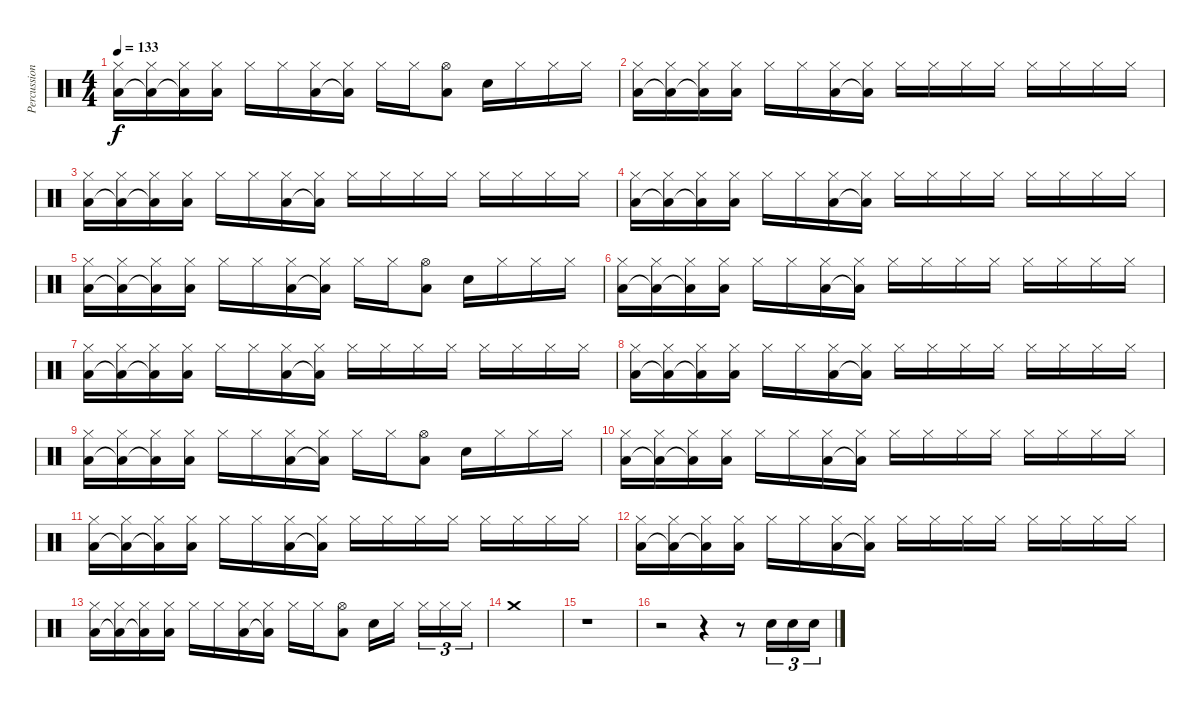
\track ("Percussion" "Percussion") {instrument percussion}
\staff {score}
\articulation defaults
\ts (4 4)
\tempo 133
\clef neutral
\ks c
("Hi-Hat (closed)" "Low Floor Tom (hit)").16{dy f} ("Hi-Hat (closed)" "Low Floor Tom (hit)"{t}).16 ("Hi-Hat (closed)" "Low Floor Tom (hit)"{t}).16 ("Hi-Hat (closed)" "Low Floor Tom (hit)").16 "Hi-Hat (closed)".16 "Hi-Hat (closed)".16 ("Hi-Hat (closed)" "Low Floor Tom (hit)").16 ("Hi-Hat (closed)" "Low Floor Tom (hit)"{t}).16 "Hi-Hat (closed)".16 "Hi-Hat (closed)".16 ("Hi-Hat (open)" "Low Floor Tom (hit)").8 "Snare (hit) 2".16 "Hi-Hat (closed)".16 "Hi-Hat (closed)".16 "Hi-Hat (closed)".16 |
("Hi-Hat (closed)" "Low Floor Tom (hit)").16 ("Hi-Hat (closed)" "Low Floor Tom (hit)"{t}).16 ("Hi-Hat (closed)" "Low Floor Tom (hit)"{t}).16 ("Hi-Hat (closed)" "Low Floor Tom (hit)").16 "Hi-Hat (closed)".16 "Hi-Hat (closed)".16 ("Hi-Hat (closed)" "Low Floor Tom (hit)").16 ("Hi-Hat (closed)" "Low Floor Tom (hit)"{t}).16 "Hi-Hat (closed)".16 "Hi-Hat (closed)".16 "Hi-Hat (closed)".16 "Hi-Hat (closed)".16 "Hi-Hat (closed)".16 "Hi-Hat (closed)".16 "Hi-Hat (closed)".16 "Hi-Hat (closed)".16 |
("Hi-Hat (closed)" "Low Floor Tom (hit)").16 ("Hi-Hat (closed)" "Low Floor Tom (hit)"{t}).16 ("Hi-Hat (closed)" "Low Floor Tom (hit)"{t}).16 ("Hi-Hat (closed)" "Low Floor Tom (hit)").16 "Hi-Hat (closed)".16 "Hi-Hat (closed)".16 ("Hi-Hat (closed)" "Low Floor Tom (hit)").16 ("Hi-Hat (closed)" "Low Floor Tom (hit)"{t}).16 "Hi-Hat (closed)".16 "Hi-Hat (closed)".16 "Hi-Hat (closed)".16 "Hi-Hat (closed)".16 "Hi-Hat (closed)".16 "Hi-Hat (closed)".16 "Hi-Hat (closed)".16 "Hi-Hat (closed)".16 |
("Hi-Hat (closed)" "Low Floor Tom (hit)").16 ("Hi-Hat (closed)" "Low Floor Tom (hit)"{t}).16 ("Hi-Hat (closed)" "Low Floor Tom (hit)"{t}).16 ("Hi-Hat (closed)" "Low Floor Tom (hit)").16 "Hi-Hat (closed)".16 "Hi-Hat (closed)".16 ("Hi-Hat (closed)" "Low Floor Tom (hit)").16 ("Hi-Hat (closed)" "Low Floor Tom (hit)"{t}).16 "Hi-Hat (closed)".16 "Hi-Hat (closed)".16 "Hi-Hat (closed)".16 "Hi-Hat (closed)".16 "Hi-Hat (closed)".16 "Hi-Hat (closed)".16 "Hi-Hat (closed)".16 "Hi-Hat (closed)".16 |
("Hi-Hat (closed)" "Low Floor Tom (hit)").16 ("Hi-Hat (closed)" "Low Floor Tom (hit)"{t}).16 ("Hi-Hat (closed)" "Low Floor Tom (hit)"{t}).16 ("Hi-Hat (closed)" "Low Floor Tom (hit)").16 "Hi-Hat (closed)".16 "Hi-Hat (closed)".16 ("Hi-Hat (closed)" "Low Floor Tom (hit)").16 ("Hi-Hat (closed)" "Low Floor Tom (hit)"{t}).16 "Hi-Hat (closed)".16 "Hi-Hat (closed)".16 ("Hi-Hat (open)" "Low Floor Tom (hit)").8 "Snare (hit) 2".16 "Hi-Hat (closed)".16 "Hi-Hat (closed)".16 "Hi-Hat (closed)".16 |
("Hi-Hat (closed)" "Low Floor Tom (hit)").16 ("Hi-Hat (closed)" "Low Floor Tom (hit)"{t}).16 ("Hi-Hat (closed)" "Low Floor Tom (hit)"{t}).16 ("Hi-Hat (closed)" "Low Floor Tom (hit)").16 "Hi-Hat (closed)".16 "Hi-Hat (closed)".16 ("Hi-Hat (closed)" "Low Floor Tom (hit)").16 ("Hi-Hat (closed)" "Low Floor Tom (hit)"{t}).16 "Hi-Hat (closed)".16 "Hi-Hat (closed)".16 "Hi-Hat (closed)".16 "Hi-Hat (closed)".16 "Hi-Hat (closed)".16 "Hi-Hat (closed)".16 "Hi-Hat (closed)".16 "Hi-Hat (closed)".16 |
("Hi-Hat (closed)" "Low Floor Tom (hit)").16 ("Hi-Hat (closed)" "Low Floor Tom (hit)"{t}).16 ("Hi-Hat (closed)" "Low Floor Tom (hit)"{t}).16 ("Hi-Hat (closed)" "Low Floor Tom (hit)").16 "Hi-Hat (closed)".16 "Hi-Hat (closed)".16 ("Hi-Hat (closed)" "Low Floor Tom (hit)").16 ("Hi-Hat (closed)" "Low Floor Tom (hit)"{t}).16 "Hi-Hat (closed)".16 "Hi-Hat (closed)".16 "Hi-Hat (closed)".16 "Hi-Hat (closed)".16 "Hi-Hat (closed)".16 "Hi-Hat (closed)".16 "Hi-Hat (closed)".16 "Hi-Hat (closed)".16 |
("Hi-Hat (closed)" "Low Floor Tom (hit)").16 ("Hi-Hat (closed)" "Low Floor Tom (hit)"{t}).16 ("Hi-Hat (closed)" "Low Floor Tom (hit)"{t}).16 ("Hi-Hat (closed)" "Low Floor Tom (hit)").16 "Hi-Hat (closed)".16 "Hi-Hat (closed)".16 ("Hi-Hat (closed)" "Low Floor Tom (hit)").16 ("Hi-Hat (closed)" "Low Floor Tom (hit)"{t}).16 "Hi-Hat (closed)".16 "Hi-Hat (closed)".16 "Hi-Hat (closed)".16 "Hi-Hat (closed)".16 "Hi-Hat (closed)".16 "Hi-Hat (closed)".16 "Hi-Hat (closed)".16 "Hi-Hat (closed)".16 |
("Hi-Hat (closed)" "Low Floor Tom (hit)").16 ("Hi-Hat (closed)" "Low Floor Tom (hit)"{t}).16 ("Hi-Hat (closed)" "Low Floor Tom (hit)"{t}).16 ("Hi-Hat (closed)" "Low Floor Tom (hit)").16 "Hi-Hat (closed)".16 "Hi-Hat (closed)".16 ("Hi-Hat (closed)" "Low Floor Tom (hit)").16 ("Hi-Hat (closed)" "Low Floor Tom (hit)"{t}).16 "Hi-Hat (closed)".16 "Hi-Hat (closed)".16 ("Hi-Hat (open)" "Low Floor Tom (hit)").8 "Snare (hit) 2".16 "Hi-Hat (closed)".16 "Hi-Hat (closed)".16 "Hi-Hat (closed)".16 |
("Hi-Hat (closed)" "Low Floor Tom (hit)").16 ("Hi-Hat (closed)" "Low Floor Tom (hit)"{t}).16 ("Hi-Hat (closed)" "Low Floor Tom (hit)"{t}).16 ("Hi-Hat (closed)" "Low Floor Tom (hit)").16 "Hi-Hat (closed)".16 "Hi-Hat (closed)".16 ("Hi-Hat (closed)" "Low Floor Tom (hit)").16 ("Hi-Hat (closed)" "Low Floor Tom (hit)"{t}).16 "Hi-Hat (closed)".16 "Hi-Hat (closed)".16 "Hi-Hat (closed)".16 "Hi-Hat (closed)".16 "Hi-Hat (closed)".16 "Hi-Hat (closed)".16 "Hi-Hat (closed)".16 "Hi-Hat (closed)".16 |
("Hi-Hat (closed)" "Low Floor Tom (hit)").16 ("Hi-Hat (closed)" "Low Floor Tom (hit)"{t}).16 ("Hi-Hat (closed)" "Low Floor Tom (hit)"{t}).16 ("Hi-Hat (closed)" "Low Floor Tom (hit)").16 "Hi-Hat (closed)".16 "Hi-Hat (closed)".16 ("Hi-Hat (closed)" "Low Floor Tom (hit)").16 ("Hi-Hat (closed)" "Low Floor Tom (hit)"{t}).16 "Hi-Hat (closed)".16 "Hi-Hat (closed)".16 "Hi-Hat (closed)".16 "Hi-Hat (closed)".16 "Hi-Hat (closed)".16 "Hi-Hat (closed)".16 "Hi-Hat (closed)".16 "Hi-Hat (closed)".16 |
("Hi-Hat (closed)" "Low Floor Tom (hit)").16 ("Hi-Hat (closed)" "Low Floor Tom (hit)"{t}).16 ("Hi-Hat (closed)" "Low Floor Tom (hit)"{t}).16 ("Hi-Hat (closed)" "Low Floor Tom (hit)").16 "Hi-Hat (closed)".16 "Hi-Hat (closed)".16 ("Hi-Hat (closed)" "Low Floor Tom (hit)").16 ("Hi-Hat (closed)" "Low Floor Tom (hit)"{t}).16 "Hi-Hat (closed)".16 "Hi-Hat (closed)".16 "Hi-Hat (closed)".16 "Hi-Hat (closed)".16 "Hi-Hat (closed)".16 "Hi-Hat (closed)".16 "Hi-Hat (closed)".16 "Hi-Hat (closed)".16 |
("Hi-Hat (closed)" "Low Floor Tom (hit)").16 ("Hi-Hat (closed)" "Low Floor Tom (hit)"{t}).16 ("Hi-Hat (closed)" "Low Floor Tom (hit)"{t}).16 ("Hi-Hat (closed)" "Low Floor Tom (hit)").16 "Hi-Hat (closed)".16 "Hi-Hat (closed)".16 ("Hi-Hat (closed)" "Low Floor Tom (hit)").16 ("Hi-Hat (closed)" "Low Floor Tom (hit)"{t}).16 "Hi-Hat (closed)".16 "Hi-Hat (closed)".16 ("Hi-Hat (open)" "Low Floor Tom (hit)").8 "Snare (hit) 2".16 "Hi-Hat (closed)".16 "Hi-Hat (closed)".16{tu (3 2)} "Hi-Hat (closed)".16{tu (3 2)} "Hi-Hat (closed)".16{tu (3 2)} |
"Crash medium (hit)".1 |
r.1 |
r.2 r.4 r.8 "Snare (hit) 2".16{tu (3 2)} "Snare (hit) 2".16{tu (3 2)} "Snare (hit) 2".16{tu (3 2)}
